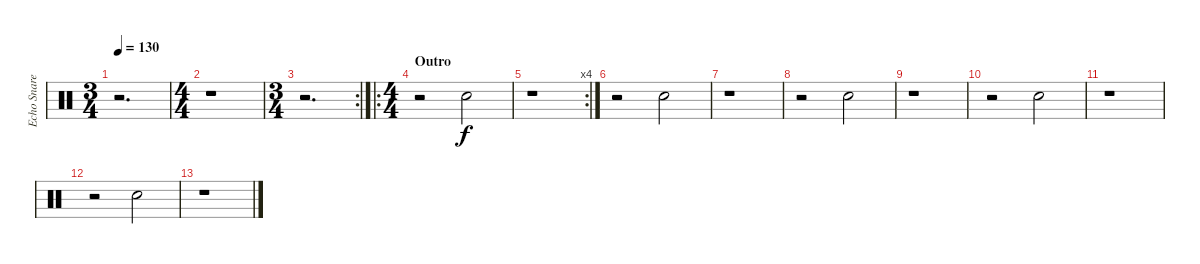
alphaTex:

\track ("Echo Snare" "Echo Snare") {instrument percussion}
\staff {score}
\articulation defaults
\ts (3 4)
\tempo 130
\clef neutral
\ks c
r.2{d dy f} |
\ts (4 4)
r.1 |
\rc 2
\ts (3 4)
r.2{d} |
\ro
\ts (4 4)
\section ("" "Outro")
r.2 "Snare (hit) 2".2 |
\rc 4
r.1 |
r.2 "Snare (hit) 2".2 |
r.1 |
r.2 "Snare (hit) 2".2 |
r.1 |
r.2 "Snare (hit) 2".2 |
r.1 |
r.2 "Snare (hit) 2".2 |
r.1
